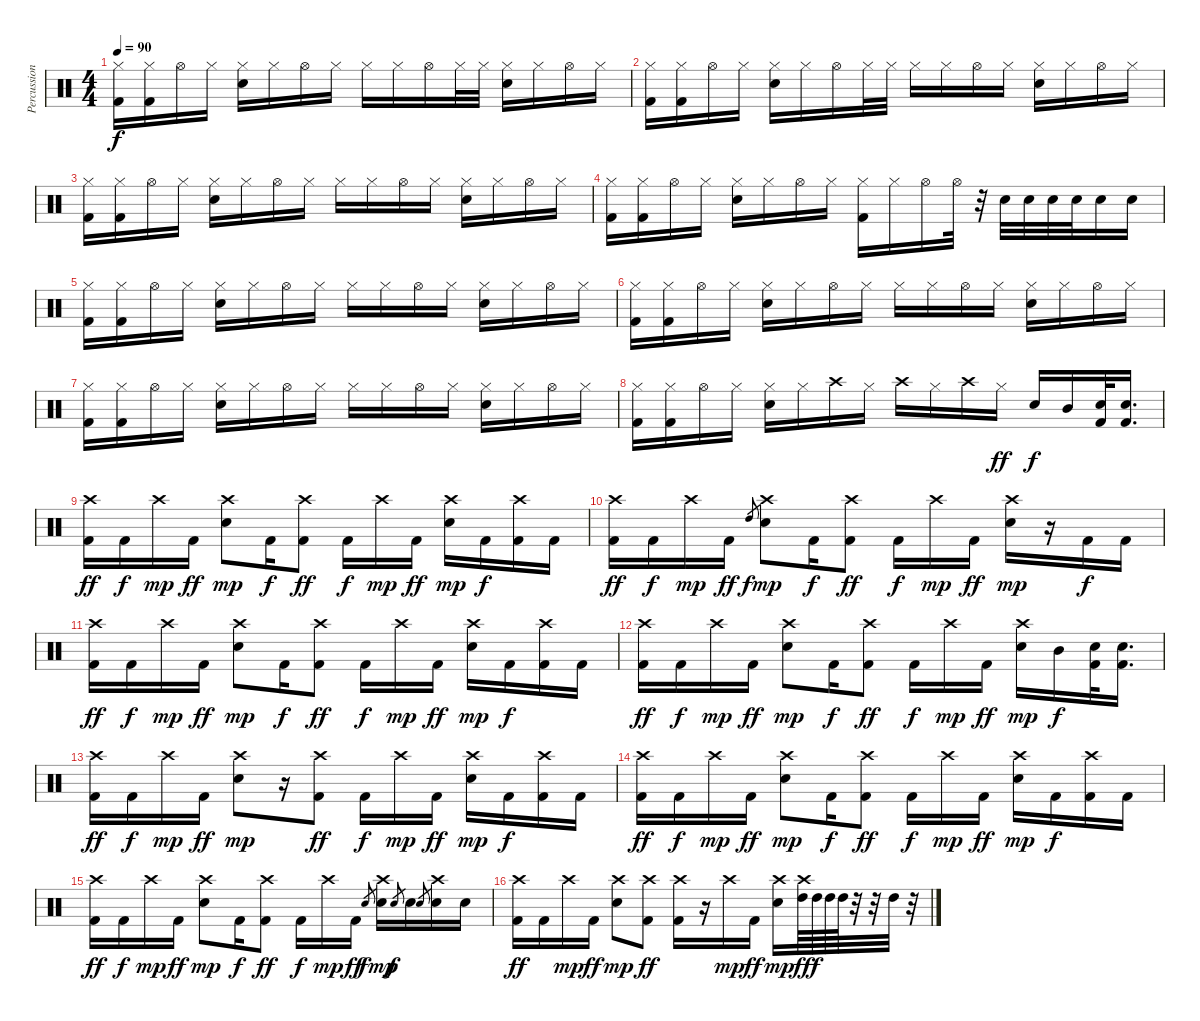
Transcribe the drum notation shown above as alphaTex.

\track ("Percussion" "Percussion") {instrument percussion}
\staff {score}
\articulation defaults
\ts (4 4)
\tempo 90
\clef neutral
\ks c
("Hi-Hat (closed)" "Kick (hit) 2").16{dy f} ("Hi-Hat (closed)" "Kick (hit) 2").16 "Hi-Hat (open)".16 "Hi-Hat (closed)".16 ("Hi-Hat (closed)" "Electric Snare (hit)").16 "Hi-Hat (closed)".16 "Hi-Hat (open)".16 "Hi-Hat (closed)".16 "Hi-Hat (closed)".16 "Hi-Hat (closed)".16 "Hi-Hat (open)".16 "Hi-Hat (closed)".32 "Hi-Hat (closed)".32 ("Hi-Hat (closed)" "Electric Snare (hit)").16 "Hi-Hat (closed)".16 "Hi-Hat (open)".16 "Hi-Hat (closed)".16 |
("Hi-Hat (closed)" "Kick (hit) 2").16 ("Hi-Hat (closed)" "Kick (hit) 2").16 "Hi-Hat (open)".16 "Hi-Hat (closed)".16 ("Hi-Hat (closed)" "Electric Snare (hit)").16 "Hi-Hat (closed)".16 "Hi-Hat (open)".16 "Hi-Hat (closed)".32 "Hi-Hat (closed)".32 "Hi-Hat (closed)".16 "Hi-Hat (closed)".16 "Hi-Hat (open)".16 "Hi-Hat (closed)".16 ("Hi-Hat (closed)" "Electric Snare (hit)").16 "Hi-Hat (closed)".16 "Hi-Hat (open)".16 "Hi-Hat (closed)".16 |
("Hi-Hat (closed)" "Kick (hit) 2").16 ("Hi-Hat (closed)" "Kick (hit) 2").16 "Hi-Hat (open)".16 "Hi-Hat (closed)".16 ("Hi-Hat (closed)" "Electric Snare (hit)").16 "Hi-Hat (closed)".16 "Hi-Hat (open)".16 "Hi-Hat (closed)".16 "Hi-Hat (closed)".16 "Hi-Hat (closed)".16 "Hi-Hat (open)".16 "Hi-Hat (closed)".16 ("Hi-Hat (closed)" "Electric Snare (hit)").16 "Hi-Hat (closed)".16 "Hi-Hat (open)".16 "Hi-Hat (closed)".16 |
("Hi-Hat (closed)" "Kick (hit) 2").16 ("Hi-Hat (closed)" "Kick (hit) 2").16 "Hi-Hat (open)".16 "Hi-Hat (closed)".16 ("Hi-Hat (closed)" "Electric Snare (hit)").16 "Hi-Hat (closed)".16 "Hi-Hat (open)".16 "Hi-Hat (closed)".16 ("Hi-Hat (closed)" "Kick (hit) 2").16 "Hi-Hat (closed)".16 "Hi-Hat (open)".16 "Hi-Hat (open)".32 r.32 "Snare (hit) 2".32 "Snare (hit) 2".32 "Snare (hit) 2".32 "Snare (hit) 2".32 "Snare (hit) 2".16 "Snare (hit) 2".16 |
("Hi-Hat (closed)" "Kick (hit) 2").16 ("Hi-Hat (closed)" "Kick (hit) 2").16 "Hi-Hat (open)".16 "Hi-Hat (closed)".16 ("Hi-Hat (closed)" "Electric Snare (hit)").16 "Hi-Hat (closed)".16 "Hi-Hat (open)".16 "Hi-Hat (closed)".16 "Hi-Hat (closed)".16 "Hi-Hat (closed)".16 "Hi-Hat (open)".16 "Hi-Hat (closed)".16 ("Hi-Hat (closed)" "Electric Snare (hit)").16 "Hi-Hat (closed)".16 "Hi-Hat (open)".16 "Hi-Hat (closed)".16 |
("Hi-Hat (closed)" "Kick (hit) 2").16 ("Hi-Hat (closed)" "Kick (hit) 2").16 "Hi-Hat (open)".16 "Hi-Hat (closed)".16 ("Hi-Hat (closed)" "Electric Snare (hit)").16 "Hi-Hat (closed)".16 "Hi-Hat (open)".16 "Hi-Hat (closed)".16 "Hi-Hat (closed)".16 "Hi-Hat (closed)".16 "Hi-Hat (open)".16 "Hi-Hat (closed)".16 ("Hi-Hat (closed)" "Electric Snare (hit)").16 "Hi-Hat (closed)".16 "Hi-Hat (open)".16 "Hi-Hat (closed)".16 |
("Hi-Hat (closed)" "Kick (hit) 2").16 ("Hi-Hat (closed)" "Kick (hit) 2").16 "Hi-Hat (open)".16 "Hi-Hat (closed)".16 ("Hi-Hat (closed)" "Electric Snare (hit)").16 "Hi-Hat (closed)".16 "Hi-Hat (open)".16 "Hi-Hat (closed)".16 "Hi-Hat (closed)".16 "Hi-Hat (closed)".16 "Hi-Hat (open)".16 "Hi-Hat (closed)".16 ("Hi-Hat (closed)" "Electric Snare (hit)").16 "Hi-Hat (closed)".16 "Hi-Hat (open)".16 "Hi-Hat (closed)".16 |
("Hi-Hat (closed)" "Kick (hit) 2").16 ("Hi-Hat (closed)" "Kick (hit) 2").16 "Hi-Hat (open)".16 "Hi-Hat (closed)".16 ("Hi-Hat (closed)" "Electric Snare (hit)").16 "Hi-Hat (closed)".16 "Crash high (hit)".16 "Hi-Hat (closed)".16 "Crash high (hit)".16 "Hi-Hat (closed)".16 "Crash high (hit)".16 "Hi-Hat (closed)".16{dy ff} "Electric Snare (hit)".16{dy f} "Mid Tom (hit)".16 ("Electric Snare (hit)" "Kick (hit) 2").32 ("Electric Snare (hit)" "Kick (hit) 2").16{d} |
("Crash high (hit)" "Kick (hit) 2").16{dy ff} "Kick (hit) 2".16{dy f} "Crash high (hit)".16{dy mp} "Kick (hit) 2".16{dy ff} ("Crash high (hit)" "Electric Snare (hit)").8{dy mp} "Kick (hit) 2".16{dy f} ("Crash high (hit)" "Kick (hit) 2").8{dy ff} "Kick (hit) 2".16{dy f} "Crash high (hit)".16{dy mp} "Kick (hit) 2".16{dy ff} ("Crash high (hit)" "Electric Snare (hit)").16{dy mp} "Kick (hit) 2".16{dy f} ("Crash high (hit)" "Kick (hit) 2").16 "Kick (hit) 2".16 |
("Crash high (hit)" "Kick (hit) 2").16{dy ff} "Kick (hit) 2".16{dy f} "Crash high (hit)".16{dy mp} "Kick (hit) 2".16{dy ff} "High Tom (hit)".8{gr dy f} ("Crash high (hit)" "Electric Snare (hit)").8{dy mp} "Kick (hit) 2".16{dy f} ("Crash high (hit)" "Kick (hit) 2").8{dy ff} "Kick (hit) 2".16{dy f} "Crash high (hit)".16{dy mp} "Kick (hit) 2".16{dy ff} ("Crash high (hit)" "Electric Snare (hit)").16{dy mp} r.16 "Kick (hit) 2".16{dy f} "Kick (hit) 2".16 |
("Crash high (hit)" "Kick (hit) 2").16{dy ff} "Kick (hit) 2".16{dy f} "Crash high (hit)".16{dy mp} "Kick (hit) 2".16{dy ff} ("Crash high (hit)" "Electric Snare (hit)").8{dy mp} "Kick (hit) 2".16{dy f} ("Crash high (hit)" "Kick (hit) 2").8{dy ff} "Kick (hit) 2".16{dy f} "Crash high (hit)".16{dy mp} "Kick (hit) 2".16{dy ff} ("Crash high (hit)" "Electric Snare (hit)").16{dy mp} "Kick (hit) 2".16{dy f} ("Crash high (hit)" "Kick (hit) 2").16 "Kick (hit) 2".16 |
("Crash high (hit)" "Kick (hit) 2").16{dy ff} "Kick (hit) 2".16{dy f} "Crash high (hit)".16{dy mp} "Kick (hit) 2".16{dy ff} ("Crash high (hit)" "Electric Snare (hit)").8{dy mp} "Kick (hit) 2".16{dy f} ("Crash high (hit)" "Kick (hit) 2").8{dy ff} "Kick (hit) 2".16{dy f} "Crash high (hit)".16{dy mp} "Kick (hit) 2".16{dy ff} ("Crash high (hit)" "Electric Snare (hit)").16{dy mp} "Mid Tom (hit)".16{dy f} ("Electric Snare (hit)" "Kick (hit) 2").32 ("Electric Snare (hit)" "Kick (hit) 2").16{d} |
("Crash high (hit)" "Kick (hit) 2").16{dy ff} "Kick (hit) 2".16{dy f} "Crash high (hit)".16{dy mp} "Kick (hit) 2".16{dy ff} ("Crash high (hit)" "Electric Snare (hit)").8{dy mp} r.16 ("Crash high (hit)" "Kick (hit) 2").8{dy ff} "Kick (hit) 2".16{dy f} "Crash high (hit)".16{dy mp} "Kick (hit) 2".16{dy ff} ("Crash high (hit)" "Electric Snare (hit)").16{dy mp} "Kick (hit) 2".16{dy f} ("Crash high (hit)" "Kick (hit) 2").16 "Kick (hit) 2".16 |
("Crash high (hit)" "Kick (hit) 2").16{dy ff} "Kick (hit) 2".16{dy f} "Crash high (hit)".16{dy mp} "Kick (hit) 2".16{dy ff} ("Crash high (hit)" "Electric Snare (hit)").8{dy mp} "Kick (hit) 2".16{dy f} ("Crash high (hit)" "Kick (hit) 2").8{dy ff} "Kick (hit) 2".16{dy f} "Crash high (hit)".16{dy mp} "Kick (hit) 2".16{dy ff} ("Crash high (hit)" "Electric Snare (hit)").16{dy mp} "Kick (hit) 2".16{dy f} ("Crash high (hit)" "Kick (hit) 2").16 "Kick (hit) 2".16 |
("Crash high (hit)" "Kick (hit) 2").16{dy ff} "Kick (hit) 2".16{dy f} "Crash high (hit)".16{dy mp} "Kick (hit) 2".16{dy ff} ("Crash high (hit)" "Electric Snare (hit)").8{dy mp} "Kick (hit) 2".16{dy f} ("Crash high (hit)" "Kick (hit) 2").8{dy ff} "Kick (hit) 2".16{dy f} "Crash high (hit)".16{dy mp} "Kick (hit) 2".16{dy ff} "Electric Snare (hit)".8{gr dy f} ("Crash high (hit)" "Electric Snare (hit)").16{dy mp} "Electric Snare (hit)".8{gr dy f} "Electric Snare (hit)".16 "Electric Snare (hit)".8{gr} ("Crash high (hit)" "Electric Snare (hit)").16 "Electric Snare (hit)".16 |
("Crash high (hit)" "Kick (hit) 2").16{dy ff} "Kick (hit) 2".16 "Crash high (hit)".16{dy mp} "Kick (hit) 2".16{dy ff} ("Crash high (hit)" "Electric Snare (hit)").8{dy mp} ("Crash high (hit)" "Kick (hit) 2").8{dy ff} ("Crash high (hit)" "Kick (hit) 2").16 r.16 "Crash high (hit)".16{dy mp} "Kick (hit) 2".16{dy ff} ("Crash high (hit)" "Electric Snare (hit)").16{dy mp} ("Crash high (hit)" "High Tom (hit)").64{dy ff} "High Tom (hit)".64{dy f} "High Tom (hit)".64 "High Tom (hit)".64 r.32 r.32 "High Tom (hit)".32 r.32
